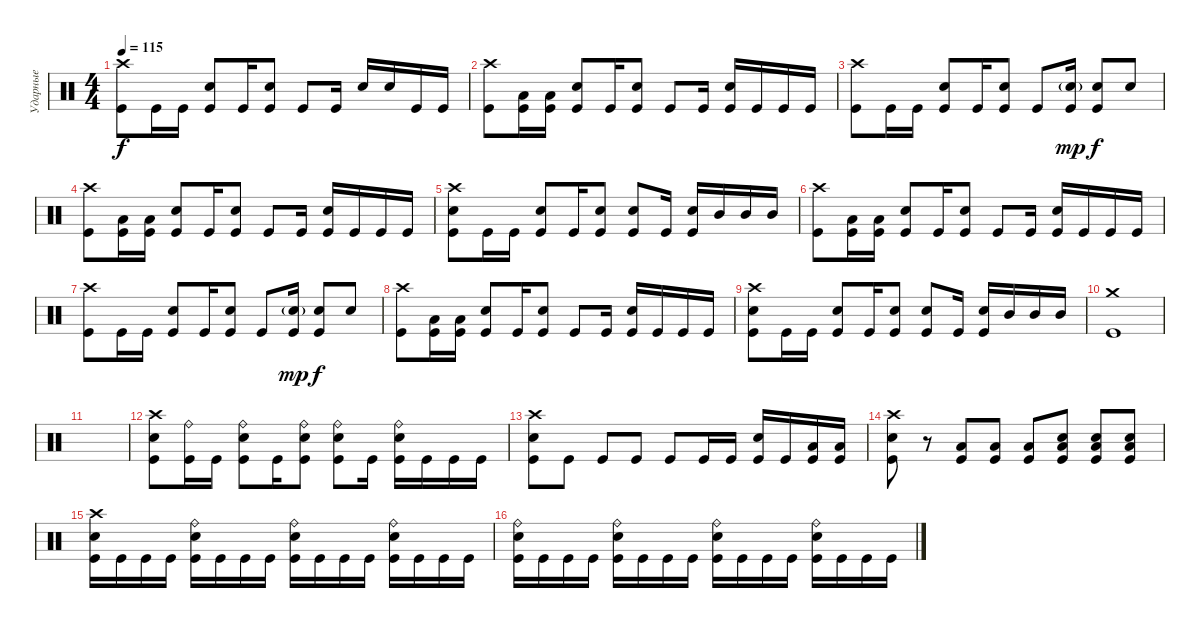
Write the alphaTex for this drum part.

\track ("Ударные" "Ударные") {instrument percussion}
\staff {score}
\articulation defaults
\ts (4 4)
\tempo 115
\clef neutral
\ks c
("Crash high (hit)" "Kick (hit)").8{dy f} "Kick (hit)".16 "Kick (hit)".16 ("Electric Snare (hit)" "Kick (hit)").8 "Kick (hit)".16 ("Electric Snare (hit)" "Kick (hit)").8 "Kick (hit)".8 "Kick (hit)".16 "Electric Snare (hit)".16 "Electric Snare (hit)".16 "Kick (hit)".16 "Kick (hit)".16 |
("Crash high (hit)" "Kick (hit)").8 ("Low Tom (hit)" "Kick (hit)").16 ("Low Tom (hit)" "Kick (hit)").16 ("Electric Snare (hit)" "Kick (hit)").8 "Kick (hit)".16 ("Electric Snare (hit)" "Kick (hit)").8 "Kick (hit)".8 "Kick (hit)".16 ("Electric Snare (hit)" "Kick (hit)").16 "Kick (hit)".16 "Kick (hit)".16 "Kick (hit)".16 |
("Crash high (hit)" "Kick (hit)").8 "Kick (hit)".16 "Kick (hit)".16 ("Electric Snare (hit)" "Kick (hit)").8 "Kick (hit)".16 ("Electric Snare (hit)" "Kick (hit)").8 "Kick (hit)".8 ("Electric Snare (hit)"{g} "Kick (hit)").16{dy mp} ("Electric Snare (hit)" "Kick (hit)").8{dy f} "Electric Snare (hit)".8 |
("Crash high (hit)" "Kick (hit)").8 ("Low Tom (hit)" "Kick (hit)").16 ("Low Tom (hit)" "Kick (hit)").16 ("Electric Snare (hit)" "Kick (hit)").8 "Kick (hit)".16 ("Electric Snare (hit)" "Kick (hit)").8 "Kick (hit)".8 "Kick (hit)".16 ("Electric Snare (hit)" "Kick (hit)").16 "Kick (hit)".16 "Kick (hit)".16 "Kick (hit)".16 |
("Crash high (hit)" "Electric Snare (hit)" "Kick (hit)").8 "Kick (hit)".16 "Kick (hit)".16 ("Electric Snare (hit)" "Kick (hit)").8 "Kick (hit)".16 ("Electric Snare (hit)" "Kick (hit)").8 ("Electric Snare (hit)" "Kick (hit)").8 "Kick (hit)".16 ("Electric Snare (hit)" "Kick (hit)").16 "Mid Tom (hit)".16 "Mid Tom (hit)".16 "Mid Tom (hit)".16 |
("Crash high (hit)" "Kick (hit)").8 ("Low Tom (hit)" "Kick (hit)").16 ("Low Tom (hit)" "Kick (hit)").16 ("Electric Snare (hit)" "Kick (hit)").8 "Kick (hit)".16 ("Electric Snare (hit)" "Kick (hit)").8 "Kick (hit)".8 "Kick (hit)".16 ("Electric Snare (hit)" "Kick (hit)").16 "Kick (hit)".16 "Kick (hit)".16 "Kick (hit)".16 |
("Crash high (hit)" "Kick (hit)").8 "Kick (hit)".16 "Kick (hit)".16 ("Electric Snare (hit)" "Kick (hit)").8 "Kick (hit)".16 ("Electric Snare (hit)" "Kick (hit)").8 "Kick (hit)".8 ("Electric Snare (hit)"{g} "Kick (hit)").16{dy mp} ("Electric Snare (hit)" "Kick (hit)").8{dy f} "Electric Snare (hit)".8 |
("Crash high (hit)" "Kick (hit)").8 ("Low Tom (hit)" "Kick (hit)").16 ("Low Tom (hit)" "Kick (hit)").16 ("Electric Snare (hit)" "Kick (hit)").8 "Kick (hit)".16 ("Electric Snare (hit)" "Kick (hit)").8 "Kick (hit)".8 "Kick (hit)".16 ("Electric Snare (hit)" "Kick (hit)").16 "Kick (hit)".16 "Kick (hit)".16 "Kick (hit)".16 |
("Crash high (hit)" "Electric Snare (hit)" "Kick (hit)").8 "Kick (hit)".16 "Kick (hit)".16 ("Electric Snare (hit)" "Kick (hit)").8 "Kick (hit)".16 ("Electric Snare (hit)" "Kick (hit)").8 ("Electric Snare (hit)" "Kick (hit)").8 "Kick (hit)".16 ("Electric Snare (hit)" "Kick (hit)").16 "Mid Tom (hit)".16 "Mid Tom (hit)".16 "Mid Tom (hit)".16 |
("Crash medium (hit)" "Kick (hit)").1 |
|
("Crash high (hit)" "Electric Snare (hit)" "Kick (hit)").8 ("Ride (bell)" "Kick (hit)").16 "Kick (hit)".16 ("Ride (bell)" "Electric Snare (hit)" "Kick (hit)").8 "Kick (hit)".16 ("Ride (bell)" "Electric Snare (hit)" "Kick (hit)").8 ("Ride (bell)" "Electric Snare (hit)" "Kick (hit)").8 "Kick (hit)".16 ("Ride (bell)" "Electric Snare (hit)" "Kick (hit)").16 "Kick (hit)".16 "Kick (hit)".16 "Kick (hit)".16 |
("Crash high (hit)" "Electric Snare (hit)" "Kick (hit)").8 "Kick (hit)".8 "Kick (hit)".8 "Kick (hit)".8 "Kick (hit)".8 "Kick (hit)".16 "Kick (hit)".16 ("Electric Snare (hit)" "Kick (hit)").16 "Kick (hit)".16 ("Low Tom (hit)" "Kick (hit)").16 ("Low Tom (hit)" "Kick (hit)").16 |
("Crash high (hit)" "Electric Snare (hit)" "Kick (hit)").8 r.8 ("Low Tom (hit)" "Kick (hit)").8 ("Low Tom (hit)" "Kick (hit)").8 ("Low Tom (hit)" "Kick (hit)").8 ("Electric Snare (hit)" "Low Tom (hit)" "Kick (hit)").8 ("Electric Snare (hit)" "Low Tom (hit)" "Kick (hit)").8 ("Electric Snare (hit)" "Low Tom (hit)" "Kick (hit)").8 |
("Crash high (hit)" "Electric Snare (hit)" "Kick (hit)").16 "Kick (hit)".16 "Kick (hit)".16 "Kick (hit)".16 ("Ride (bell)" "Electric Snare (hit)" "Kick (hit)").16 "Kick (hit)".16 "Kick (hit)".16 "Kick (hit)".16 ("Ride (bell)" "Electric Snare (hit)" "Kick (hit)").16 "Kick (hit)".16 "Kick (hit)".16 "Kick (hit)".16 ("Ride (bell)" "Electric Snare (hit)" "Kick (hit)").16 "Kick (hit)".16 "Kick (hit)".16 "Kick (hit)".16 |
("Ride (bell)" "Electric Snare (hit)" "Kick (hit)").16 "Kick (hit)".16 "Kick (hit)".16 "Kick (hit)".16 ("Ride (bell)" "Electric Snare (hit)" "Kick (hit)").16 "Kick (hit)".16 "Kick (hit)".16 "Kick (hit)".16 ("Ride (bell)" "Electric Snare (hit)" "Kick (hit)").16 "Kick (hit)".16 "Kick (hit)".16 "Kick (hit)".16 ("Ride (bell)" "Electric Snare (hit)" "Kick (hit)").16 "Kick (hit)".16 "Kick (hit)".16 "Kick (hit)".16
